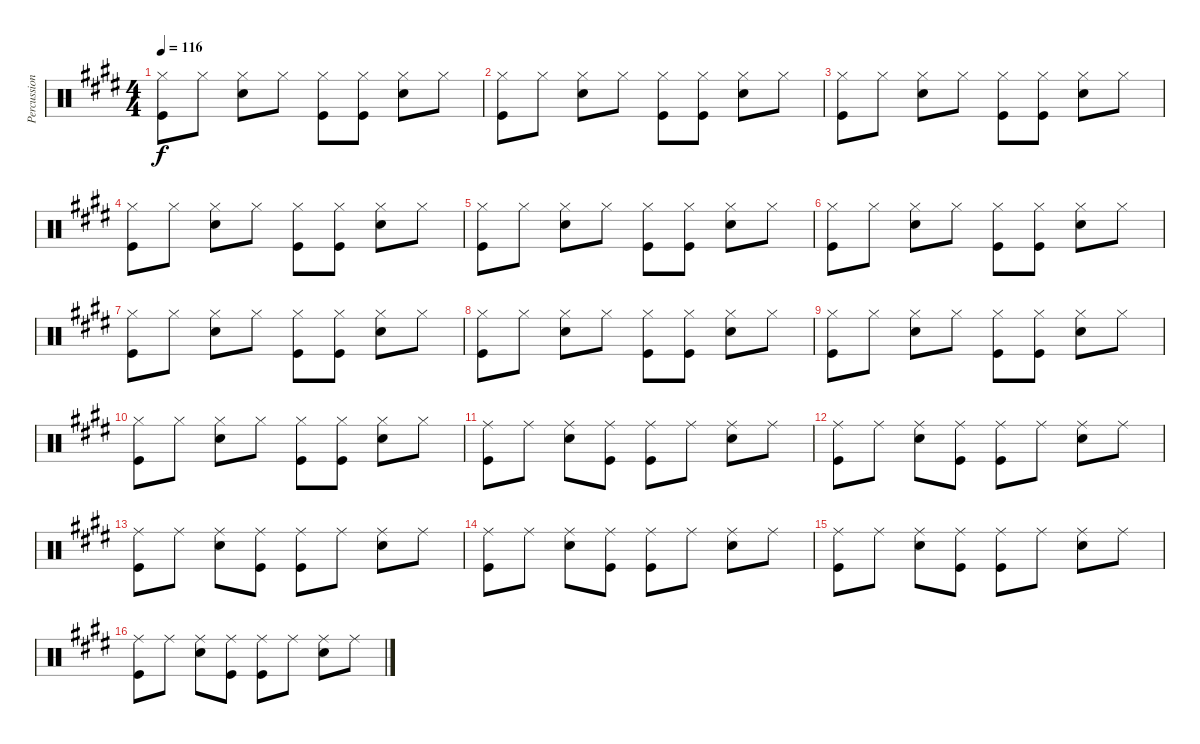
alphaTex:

\track ("Percussion" "Percussion") {instrument percussion}
\staff {score}
\articulation defaults
\ts (4 4)
\tempo 116
\clef neutral
\ks e
("Hi-Hat (closed)" "Kick (hit)").8{dy f} "Hi-Hat (closed)".8 ("Hi-Hat (closed)" "Snare (hit) 2").8 "Hi-Hat (closed)".8 ("Hi-Hat (closed)" "Kick (hit)").8 ("Hi-Hat (closed)" "Kick (hit)").8 ("Hi-Hat (closed)" "Snare (hit) 2").8 "Hi-Hat (closed)".8 |
("Hi-Hat (closed)" "Kick (hit)").8 "Hi-Hat (closed)".8 ("Hi-Hat (closed)" "Snare (hit) 2").8 "Hi-Hat (closed)".8 ("Hi-Hat (closed)" "Kick (hit)").8 ("Hi-Hat (closed)" "Kick (hit)").8 ("Hi-Hat (closed)" "Snare (hit) 2").8 "Hi-Hat (closed)".8 |
("Hi-Hat (closed)" "Kick (hit)").8 "Hi-Hat (closed)".8 ("Hi-Hat (closed)" "Snare (hit) 2").8 "Hi-Hat (closed)".8 ("Hi-Hat (closed)" "Kick (hit)").8 ("Hi-Hat (closed)" "Kick (hit)").8 ("Hi-Hat (closed)" "Snare (hit) 2").8 "Hi-Hat (closed)".8 |
("Hi-Hat (closed)" "Kick (hit)").8 "Hi-Hat (closed)".8 ("Hi-Hat (closed)" "Snare (hit) 2").8 "Hi-Hat (closed)".8 ("Hi-Hat (closed)" "Kick (hit)").8 ("Hi-Hat (closed)" "Kick (hit)").8 ("Hi-Hat (closed)" "Snare (hit) 2").8 "Hi-Hat (closed)".8 |
("Hi-Hat (closed)" "Kick (hit)").8 "Hi-Hat (closed)".8 ("Hi-Hat (closed)" "Snare (hit) 2").8 "Hi-Hat (closed)".8 ("Hi-Hat (closed)" "Kick (hit)").8 ("Hi-Hat (closed)" "Kick (hit)").8 ("Hi-Hat (closed)" "Snare (hit) 2").8 "Hi-Hat (closed)".8 |
("Hi-Hat (closed)" "Kick (hit)").8 "Hi-Hat (closed)".8 ("Hi-Hat (closed)" "Snare (hit) 2").8 "Hi-Hat (closed)".8 ("Hi-Hat (closed)" "Kick (hit)").8 ("Hi-Hat (closed)" "Kick (hit)").8 ("Hi-Hat (closed)" "Snare (hit) 2").8 "Hi-Hat (closed)".8 |
("Hi-Hat (closed)" "Kick (hit)").8 "Hi-Hat (closed)".8 ("Hi-Hat (closed)" "Snare (hit) 2").8 "Hi-Hat (closed)".8 ("Hi-Hat (closed)" "Kick (hit)").8 ("Hi-Hat (closed)" "Kick (hit)").8 ("Hi-Hat (closed)" "Snare (hit) 2").8 "Hi-Hat (closed)".8 |
("Hi-Hat (closed)" "Kick (hit)").8 "Hi-Hat (closed)".8 ("Hi-Hat (closed)" "Snare (hit) 2").8 "Hi-Hat (closed)".8 ("Hi-Hat (closed)" "Kick (hit)").8 ("Hi-Hat (closed)" "Kick (hit)").8 ("Hi-Hat (closed)" "Snare (hit) 2").8 "Hi-Hat (closed)".8 |
("Hi-Hat (closed)" "Kick (hit)").8 "Hi-Hat (closed)".8 ("Hi-Hat (closed)" "Snare (hit) 2").8 "Hi-Hat (closed)".8 ("Hi-Hat (closed)" "Kick (hit)").8 ("Hi-Hat (closed)" "Kick (hit)").8 ("Hi-Hat (closed)" "Snare (hit) 2").8 "Hi-Hat (closed)".8 |
("Hi-Hat (closed)" "Kick (hit)").8 "Hi-Hat (closed)".8 ("Hi-Hat (closed)" "Snare (hit) 2").8 "Hi-Hat (closed)".8 ("Hi-Hat (closed)" "Kick (hit)").8 ("Hi-Hat (closed)" "Kick (hit)").8 ("Hi-Hat (closed)" "Snare (hit) 2").8 "Hi-Hat (closed)".8 |
("Ride (middle)" "Kick (hit)").8 "Ride (middle)".8 ("Ride (middle)" "Snare (hit) 2").8 ("Ride (middle)" "Kick (hit)").8 ("Ride (middle)" "Kick (hit)").8 "Ride (middle)".8 ("Ride (middle)" "Snare (hit) 2").8 "Ride (middle)".8 |
("Ride (middle)" "Kick (hit)").8 "Ride (middle)".8 ("Ride (middle)" "Snare (hit) 2").8 ("Ride (middle)" "Kick (hit)").8 ("Ride (middle)" "Kick (hit)").8 "Ride (middle)".8 ("Ride (middle)" "Snare (hit) 2").8 "Ride (middle)".8 |
("Ride (middle)" "Kick (hit)").8 "Ride (middle)".8 ("Ride (middle)" "Snare (hit) 2").8 ("Ride (middle)" "Kick (hit)").8 ("Ride (middle)" "Kick (hit)").8 "Ride (middle)".8 ("Ride (middle)" "Snare (hit) 2").8 "Ride (middle)".8 |
("Ride (middle)" "Kick (hit)").8 "Ride (middle)".8 ("Ride (middle)" "Snare (hit) 2").8 ("Ride (middle)" "Kick (hit)").8 ("Ride (middle)" "Kick (hit)").8 "Ride (middle)".8 ("Ride (middle)" "Snare (hit) 2").8 "Ride (middle)".8 |
("Ride (middle)" "Kick (hit)").8 "Ride (middle)".8 ("Ride (middle)" "Snare (hit) 2").8 ("Ride (middle)" "Kick (hit)").8 ("Ride (middle)" "Kick (hit)").8 "Ride (middle)".8 ("Ride (middle)" "Snare (hit) 2").8 "Ride (middle)".8 |
("Ride (middle)" "Kick (hit)").8 "Ride (middle)".8 ("Ride (middle)" "Snare (hit) 2").8 ("Ride (middle)" "Kick (hit)").8 ("Ride (middle)" "Kick (hit)").8 "Ride (middle)".8 ("Ride (middle)" "Snare (hit) 2").8 "Ride (middle)".8
